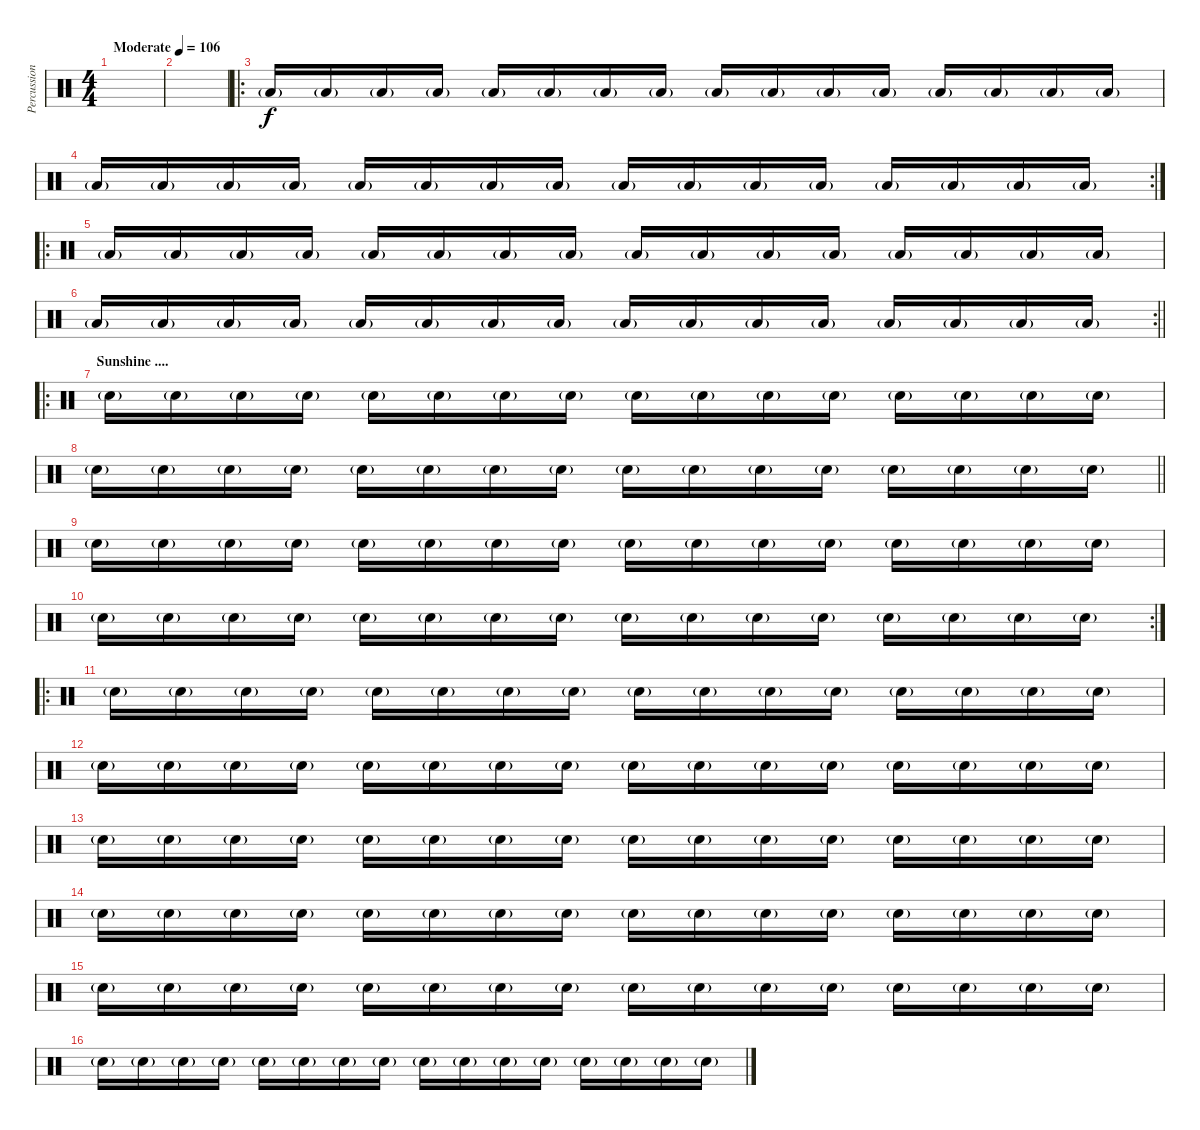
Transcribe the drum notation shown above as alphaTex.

\track ("Percussion" "Percussion") {instrument percussion}
\staff {score}
\articulation defaults
\ts (4 4)
\tempo (106 "Moderate")
\clef neutral
\ks c
|
|
\ro "Low Tom (hit)"{g}.16{volume 1} "Low Tom (hit)"{g}.16 "Low Tom (hit)"{g}.16 "Low Tom (hit)"{g}.16 "Low Tom (hit)"{g}.16 "Low Tom (hit)"{g}.16 "Low Tom (hit)"{g}.16 "Low Tom (hit)"{g}.16 "Low Tom (hit)"{g}.16 "Low Tom (hit)"{g}.16 "Low Tom (hit)"{g}.16 "Low Tom (hit)"{g}.16 "Low Tom (hit)"{g}.16 "Low Tom (hit)"{g}.16 "Low Tom (hit)"{g}.16 "Low Tom (hit)"{g}.16
|
\rc 2 "Low Tom (hit)"{g}.16 "Low Tom (hit)"{g}.16 "Low Tom (hit)"{g}.16 "Low Tom (hit)"{g}.16 "Low Tom (hit)"{g}.16 "Low Tom (hit)"{g}.16 "Low Tom (hit)"{g}.16 "Low Tom (hit)"{g}.16 "Low Tom (hit)"{g}.16 "Low Tom (hit)"{g}.16 "Low Tom (hit)"{g}.16 "Low Tom (hit)"{g}.16 "Low Tom (hit)"{g}.16 "Low Tom (hit)"{g}.16 "Low Tom (hit)"{g}.16 "Low Tom (hit)"{g}.16
|
\ro "Low Tom (hit)"{g}.16 "Low Tom (hit)"{g}.16 "Low Tom (hit)"{g}.16 "Low Tom (hit)"{g}.16 "Low Tom (hit)"{g}.16 "Low Tom (hit)"{g}.16 "Low Tom (hit)"{g}.16 "Low Tom (hit)"{g}.16 "Low Tom (hit)"{g}.16 "Low Tom (hit)"{g}.16 "Low Tom (hit)"{g}.16 "Low Tom (hit)"{g}.16 "Low Tom (hit)"{g}.16 "Low Tom (hit)"{g}.16 "Low Tom (hit)"{g}.16 "Low Tom (hit)"{g}.16
|
\rc 2
\barLineRight lightlight "Low Tom (hit)"{g}.16 "Low Tom (hit)"{g}.16 "Low Tom (hit)"{g}.16 "Low Tom (hit)"{g}.16 "Low Tom (hit)"{g}.16 "Low Tom (hit)"{g}.16 "Low Tom (hit)"{g}.16 "Low Tom (hit)"{g}.16 "Low Tom (hit)"{g}.16 "Low Tom (hit)"{g}.16 "Low Tom (hit)"{g}.16 "Low Tom (hit)"{g}.16 "Low Tom (hit)"{g}.16 "Low Tom (hit)"{g}.16 "Low Tom (hit)"{g}.16 "Low Tom (hit)"{g}.16
|
\ro
\section ("" "Sunshine ....")
"Electric Snare (hit)"{g}.16 "Electric Snare (hit)"{g}.16 "Electric Snare (hit)"{g}.16 "Electric Snare (hit)"{g}.16 "Electric Snare (hit)"{g}.16 "Electric Snare (hit)"{g}.16 "Electric Snare (hit)"{g}.16 "Electric Snare (hit)"{g}.16 "Electric Snare (hit)"{g}.16 "Electric Snare (hit)"{g}.16 "Electric Snare (hit)"{g}.16 "Electric Snare (hit)"{g}.16 "Electric Snare (hit)"{g}.16 "Electric Snare (hit)"{g}.16 "Electric Snare (hit)"{g}.16 "Electric Snare (hit)"{g}.16 |
\barLineRight lightlight "Electric Snare (hit)"{g}.16 "Electric Snare (hit)"{g}.16 "Electric Snare (hit)"{g}.16 "Electric Snare (hit)"{g}.16 "Electric Snare (hit)"{g}.16 "Electric Snare (hit)"{g}.16 "Electric Snare (hit)"{g}.16 "Electric Snare (hit)"{g}.16 "Electric Snare (hit)"{g}.16 "Electric Snare (hit)"{g}.16 "Electric Snare (hit)"{g}.16 "Electric Snare (hit)"{g}.16 "Electric Snare (hit)"{g}.16 "Electric Snare (hit)"{g}.16 "Electric Snare (hit)"{g}.16 "Electric Snare (hit)"{g}.16
|
"Electric Snare (hit)"{g}.16 "Electric Snare (hit)"{g}.16 "Electric Snare (hit)"{g}.16 "Electric Snare (hit)"{g}.16 "Electric Snare (hit)"{g}.16 "Electric Snare (hit)"{g}.16 "Electric Snare (hit)"{g}.16 "Electric Snare (hit)"{g}.16 "Electric Snare (hit)"{g}.16 "Electric Snare (hit)"{g}.16 "Electric Snare (hit)"{g}.16 "Electric Snare (hit)"{g}.16 "Electric Snare (hit)"{g}.16 "Electric Snare (hit)"{g}.16 "Electric Snare (hit)"{g}.16 "Electric Snare (hit)"{g}.16 |
\rc 2 "Electric Snare (hit)"{g}.16 "Electric Snare (hit)"{g}.16 "Electric Snare (hit)"{g}.16 "Electric Snare (hit)"{g}.16 "Electric Snare (hit)"{g}.16 "Electric Snare (hit)"{g}.16 "Electric Snare (hit)"{g}.16 "Electric Snare (hit)"{g}.16 "Electric Snare (hit)"{g}.16 "Electric Snare (hit)"{g}.16 "Electric Snare (hit)"{g}.16 "Electric Snare (hit)"{g}.16 "Electric Snare (hit)"{g}.16 "Electric Snare (hit)"{g}.16 "Electric Snare (hit)"{g}.16 "Electric Snare (hit)"{g}.16
|
\ro "Electric Snare (hit)"{g}.16 "Electric Snare (hit)"{g}.16 "Electric Snare (hit)"{g}.16 "Electric Snare (hit)"{g}.16 "Electric Snare (hit)"{g}.16 "Electric Snare (hit)"{g}.16 "Electric Snare (hit)"{g}.16 "Electric Snare (hit)"{g}.16 "Electric Snare (hit)"{g}.16 "Electric Snare (hit)"{g}.16 "Electric Snare (hit)"{g}.16 "Electric Snare (hit)"{g}.16 "Electric Snare (hit)"{g}.16 "Electric Snare (hit)"{g}.16 "Electric Snare (hit)"{g}.16 "Electric Snare (hit)"{g}.16
|
"Electric Snare (hit)"{g}.16 "Electric Snare (hit)"{g}.16 "Electric Snare (hit)"{g}.16 "Electric Snare (hit)"{g}.16 "Electric Snare (hit)"{g}.16 "Electric Snare (hit)"{g}.16 "Electric Snare (hit)"{g}.16 "Electric Snare (hit)"{g}.16 "Electric Snare (hit)"{g}.16 "Electric Snare (hit)"{g}.16 "Electric Snare (hit)"{g}.16 "Electric Snare (hit)"{g}.16 "Electric Snare (hit)"{g}.16 "Electric Snare (hit)"{g}.16 "Electric Snare (hit)"{g}.16 "Electric Snare (hit)"{g}.16 |
"Electric Snare (hit)"{g}.16 "Electric Snare (hit)"{g}.16 "Electric Snare (hit)"{g}.16 "Electric Snare (hit)"{g}.16 "Electric Snare (hit)"{g}.16 "Electric Snare (hit)"{g}.16 "Electric Snare (hit)"{g}.16 "Electric Snare (hit)"{g}.16 "Electric Snare (hit)"{g}.16 "Electric Snare (hit)"{g}.16 "Electric Snare (hit)"{g}.16 "Electric Snare (hit)"{g}.16 "Electric Snare (hit)"{g}.16 "Electric Snare (hit)"{g}.16 "Electric Snare (hit)"{g}.16 "Electric Snare (hit)"{g}.16 |
"Electric Snare (hit)"{g}.16 "Electric Snare (hit)"{g}.16 "Electric Snare (hit)"{g}.16 "Electric Snare (hit)"{g}.16 "Electric Snare (hit)"{g}.16 "Electric Snare (hit)"{g}.16 "Electric Snare (hit)"{g}.16 "Electric Snare (hit)"{g}.16 "Electric Snare (hit)"{g}.16 "Electric Snare (hit)"{g}.16 "Electric Snare (hit)"{g}.16 "Electric Snare (hit)"{g}.16 "Electric Snare (hit)"{g}.16 "Electric Snare (hit)"{g}.16 "Electric Snare (hit)"{g}.16 "Electric Snare (hit)"{g}.16 |
"Electric Snare (hit)"{g}.16 "Electric Snare (hit)"{g}.16 "Electric Snare (hit)"{g}.16 "Electric Snare (hit)"{g}.16 "Electric Snare (hit)"{g}.16 "Electric Snare (hit)"{g}.16 "Electric Snare (hit)"{g}.16 "Electric Snare (hit)"{g}.16 "Electric Snare (hit)"{g}.16 "Electric Snare (hit)"{g}.16 "Electric Snare (hit)"{g}.16 "Electric Snare (hit)"{g}.16 "Electric Snare (hit)"{g}.16 "Electric Snare (hit)"{g}.16 "Electric Snare (hit)"{g}.16 "Electric Snare (hit)"{g}.16 |
"Electric Snare (hit)"{g}.16 "Electric Snare (hit)"{g}.16 "Electric Snare (hit)"{g}.16 "Electric Snare (hit)"{g}.16 "Electric Snare (hit)"{g}.16 "Electric Snare (hit)"{g}.16 "Electric Snare (hit)"{g}.16 "Electric Snare (hit)"{g}.16 "Electric Snare (hit)"{g}.16 "Electric Snare (hit)"{g}.16 "Electric Snare (hit)"{g}.16 "Electric Snare (hit)"{g}.16 "Electric Snare (hit)"{g}.16 "Electric Snare (hit)"{g}.16 "Electric Snare (hit)"{g}.16 "Electric Snare (hit)"{g}.16
